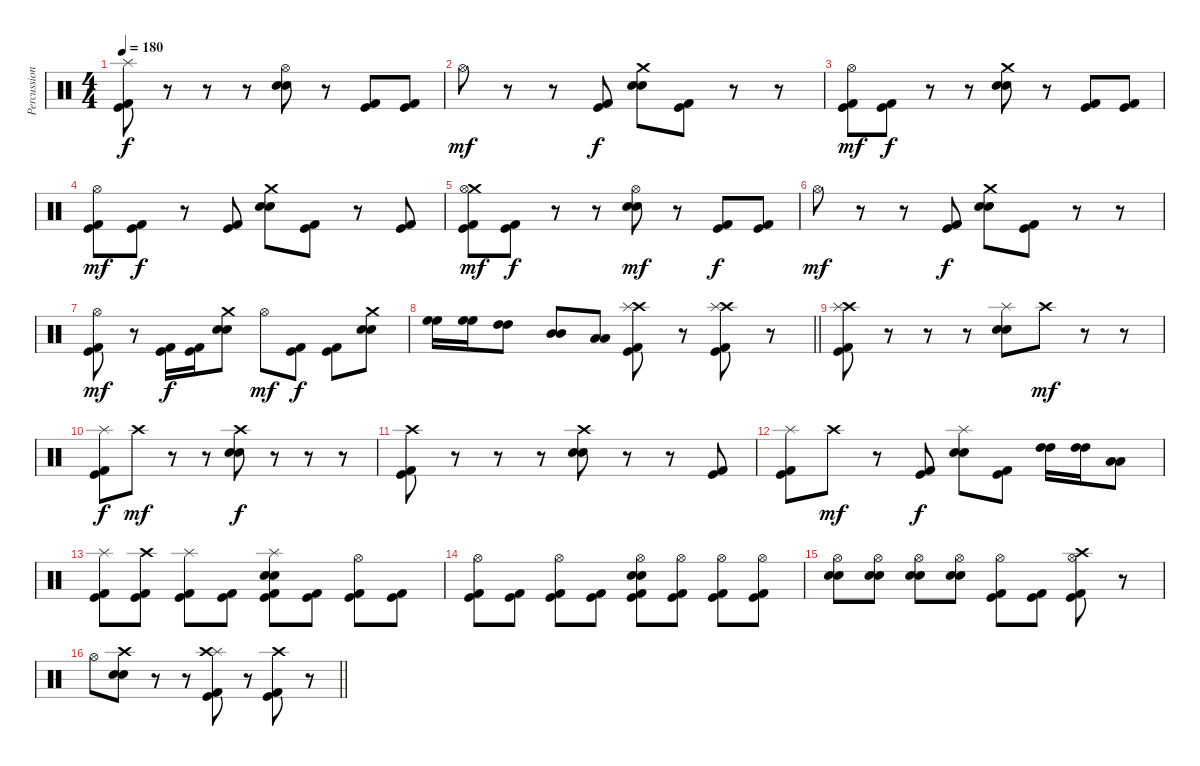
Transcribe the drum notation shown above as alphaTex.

\track ("Percussion" "Percussion") {instrument percussion}
\staff {score}
\articulation defaults
\ts (4 4)
\tempo 180
\clef neutral
\ks c
("Splash (hit)" "Kick (hit) 2" "Kick (hit)").8{dy f} r.8 r.8 r.8 ("Hi-Hat (open)" "Electric Snare (hit)" "Electric Snare (hit)").8 r.8 ("Kick (hit) 2" "Kick (hit)").8 ("Kick (hit) 2" "Kick (hit)").8 |
"Hi-Hat (open)".8{dy mf} r.8 r.8 ("Kick (hit) 2" "Kick (hit)").8{dy f} ("Crash medium (hit)" "Electric Snare (hit)" "Electric Snare (hit)").8 ("Kick (hit) 2" "Kick (hit)").8 r.8 r.8 |
("Hi-Hat (open)" "Kick (hit) 2" "Kick (hit)").8{dy mf} ("Kick (hit) 2" "Kick (hit)").8{dy f} r.8 r.8 ("Crash medium (hit)" "Electric Snare (hit)" "Electric Snare (hit)").8 r.8 ("Kick (hit) 2" "Kick (hit)").8 ("Kick (hit) 2" "Kick (hit)").8 |
("Hi-Hat (open)" "Kick (hit) 2" "Kick (hit)").8{dy mf} ("Kick (hit) 2" "Kick (hit)").8{dy f} r.8 ("Kick (hit) 2" "Kick (hit)").8 ("Crash medium (hit)" "Electric Snare (hit)" "Electric Snare (hit)").8 ("Kick (hit) 2" "Kick (hit)").8 r.8 ("Kick (hit) 2" "Kick (hit)").8 |
("Crash medium (hit)" "Hi-Hat (open)" "Kick (hit) 2" "Kick (hit)").8{dy mf} ("Kick (hit) 2" "Kick (hit)").8{dy f} r.8 r.8 ("Hi-Hat (open)" "Electric Snare (hit)" "Electric Snare (hit)").8{dy mf} r.8 ("Kick (hit) 2" "Kick (hit)").8{dy f} ("Kick (hit) 2" "Kick (hit)").8 |
"Hi-Hat (open)".8{dy mf} r.8 r.8 ("Kick (hit) 2" "Kick (hit)").8{dy f} ("Crash medium (hit)" "Electric Snare (hit)" "Electric Snare (hit)").8 ("Kick (hit) 2" "Kick (hit)").8 r.8 r.8 |
("Hi-Hat (open)" "Kick (hit) 2" "Kick (hit)").8{dy mf} r.8 ("Kick (hit) 2" "Kick (hit)").16{dy f} ("Kick (hit) 2" "Kick (hit)").16 ("Crash medium (hit)" "Electric Snare (hit)" "Electric Snare (hit)").8 "Hi-Hat (open)".8{dy mf} ("Kick (hit) 2" "Kick (hit)").8{dy f} ("Kick (hit) 2" "Kick (hit)").8 ("Crash medium (hit)" "Electric Snare (hit)" "Electric Snare (hit)").8 |
\barLineRight lightlight
("High Floor Tom (hit)" "High Floor Tom (hit)").16 ("High Floor Tom (hit)" "High Floor Tom (hit)").16 ("High Tom (hit)" "High Tom (hit)").8 ("Mid Tom (hit)" "Mid Tom (hit)").8 ("Low Tom (hit)" "Low Tom (hit)").8 ("Crash high (hit)" "Splash (hit)" "Kick (hit) 2" "Kick (hit)").8 r.8 ("Crash high (hit)" "Splash (hit)" "Kick (hit) 2" "Kick (hit)").8 r.8 |
("Crash high (hit)" "Splash (hit)" "Kick (hit) 2" "Kick (hit)").8 r.8 r.8 r.8 ("Splash (hit)" "Electric Snare (hit)" "Electric Snare (hit)").8 "Crash high (hit)".8{dy mf} r.8 r.8 |
("Splash (hit)" "Kick (hit) 2" "Kick (hit)").8{dy f} "Crash high (hit)".8{dy mf} r.8 r.8 ("Crash high (hit)" "Electric Snare (hit)" "Electric Snare (hit)").8{dy f} r.8 r.8 r.8 |
("Crash high (hit)" "Kick (hit) 2" "Kick (hit)").8 r.8 r.8 r.8 ("Crash high (hit)" "Electric Snare (hit)" "Electric Snare (hit)").8 r.8 r.8 ("Kick (hit) 2" "Kick (hit)").8 |
("Splash (hit)" "Kick (hit) 2" "Kick (hit)").8 "Crash high (hit)".8{dy mf} r.8 ("Kick (hit) 2" "Kick (hit)").8{dy f} ("Splash (hit)" "Electric Snare (hit)" "Electric Snare (hit)").8 ("Kick (hit) 2" "Kick (hit)").8 ("High Tom (hit)" "High Tom (hit)").16 ("High Tom (hit)" "High Tom (hit)").16 ("Low Tom (hit)" "Low Tom (hit)").8 |
("Splash (hit)" "Kick (hit) 2" "Kick (hit)").8 ("Crash high (hit)" "Kick (hit) 2" "Kick (hit)").8 ("Splash (hit)" "Kick (hit) 2" "Kick (hit)").8 ("Kick (hit) 2" "Kick (hit)").8 ("Splash (hit)" "Electric Snare (hit)" "Electric Snare (hit)" "Kick (hit) 2" "Kick (hit)").8 ("Kick (hit) 2" "Kick (hit)").8 ("Hi-Hat (open)" "Kick (hit) 2" "Kick (hit)").8 ("Kick (hit) 2" "Kick (hit)").8 |
("Hi-Hat (open)" "Kick (hit) 2" "Kick (hit)").8 ("Kick (hit) 2" "Kick (hit)").8 ("Hi-Hat (open)" "Kick (hit) 2" "Kick (hit)").8 ("Kick (hit) 2" "Kick (hit)").8 ("Hi-Hat (open)" "Electric Snare (hit)" "Electric Snare (hit)" "Kick (hit) 2" "Kick (hit)").8 ("Hi-Hat (open)" "Kick (hit) 2" "Kick (hit)").8 ("Hi-Hat (open)" "Kick (hit) 2" "Kick (hit)").8 ("Hi-Hat (open)" "Kick (hit) 2" "Kick (hit)").8 |
("Hi-Hat (open)" "Electric Snare (hit)" "Electric Snare (hit)").8 ("Hi-Hat (open)" "Electric Snare (hit)" "Electric Snare (hit)").8 ("Hi-Hat (open)" "Electric Snare (hit)" "Electric Snare (hit)").8 ("Hi-Hat (open)" "Electric Snare (hit)" "Electric Snare (hit)").8 ("Hi-Hat (open)" "Kick (hit) 2" "Kick (hit)").8 ("Kick (hit) 2" "Kick (hit)").8 ("Crash high (hit)" "Hi-Hat (open)" "Kick (hit) 2" "Kick (hit)").8 r.8 |
\barLineRight lightlight "Hi-Hat (open)".8
("Crash high (hit)" "Electric Snare (hit)" "Electric Snare (hit)").8 r.8 r.8 ("Splash (hit)" "Crash high (hit)" "Kick (hit) 2" "Kick (hit)").8 r.8 ("Crash high (hit)" "Kick (hit) 2" "Kick (hit)").8 r.8
